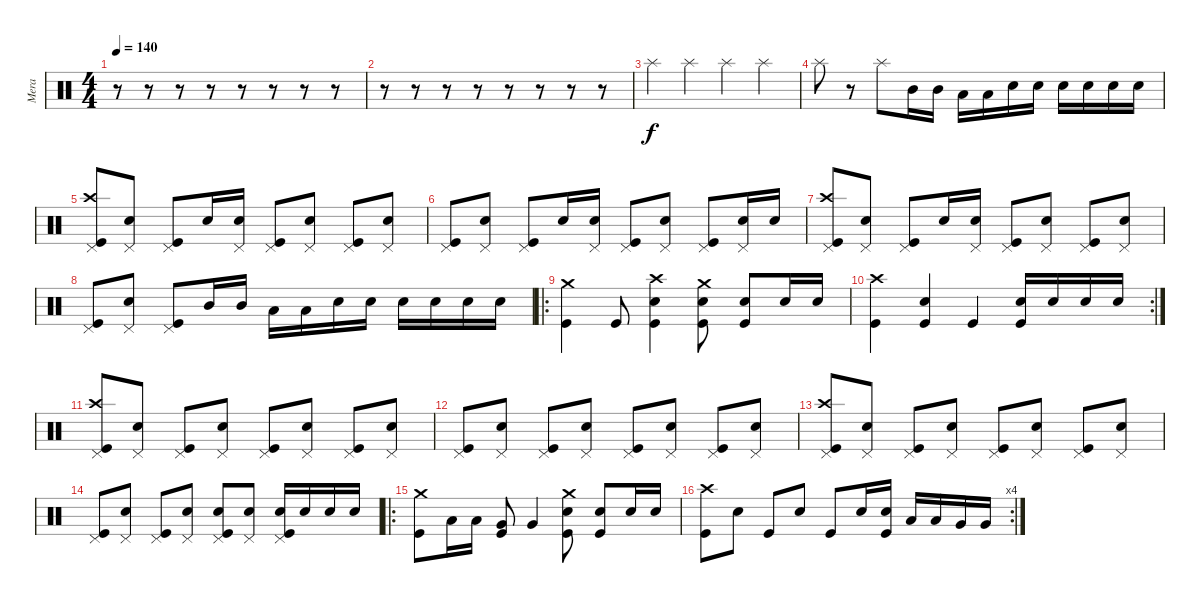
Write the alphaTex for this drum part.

\track ("Mera" "Mera") {instrument percussion}
\staff {score}
\articulation defaults
\ts (4 4)
\tempo 140
\clef neutral
\ks c
r.8{dy f} r.8 r.8 r.8 r.8 r.8 r.8 r.8 |
r.8 r.8 r.8 r.8 r.8 r.8 r.8 r.8 |
"Splash (hit)".4 "Splash (hit)".4 "Splash (hit)".4 "Splash (hit)".4 |
"Splash (hit)".8 r.8 "Splash (hit)".8 "Mid Tom (hit)".16 "Mid Tom (hit)".16 "Low Tom (hit)".16 "Low Tom (hit)".16 "Electric Snare (hit)".16 "Electric Snare (hit)".16 "Electric Snare (hit)".16 "Electric Snare (hit)".16 "Electric Snare (hit)".16 "Electric Snare (hit)".16 |
("Kick (hit)" "Crash high (hit)" "Pedal Hi-Hat (hit)").8 ("Electric Snare (hit)" "Pedal Hi-Hat (hit)").8 ("Kick (hit)" "Pedal Hi-Hat (hit)").8 "Electric Snare (hit)".16 ("Electric Snare (hit)" "Pedal Hi-Hat (hit)").16 ("Kick (hit)" "Pedal Hi-Hat (hit)").8 ("Electric Snare (hit)" "Pedal Hi-Hat (hit)").8 ("Kick (hit)" "Pedal Hi-Hat (hit)").8 ("Electric Snare (hit)" "Pedal Hi-Hat (hit)").8 |
("Kick (hit)" "Pedal Hi-Hat (hit)").8 ("Electric Snare (hit)" "Pedal Hi-Hat (hit)").8 ("Kick (hit)" "Pedal Hi-Hat (hit)").8 "Electric Snare (hit)".16 ("Electric Snare (hit)" "Pedal Hi-Hat (hit)").16 ("Kick (hit)" "Pedal Hi-Hat (hit)").8 ("Electric Snare (hit)" "Pedal Hi-Hat (hit)").8 ("Kick (hit)" "Pedal Hi-Hat (hit)").8 ("Electric Snare (hit)" "Pedal Hi-Hat (hit)").16 "Electric Snare (hit)".16 |
("Kick (hit)" "Crash high (hit)" "Pedal Hi-Hat (hit)").8 ("Electric Snare (hit)" "Pedal Hi-Hat (hit)").8 ("Kick (hit)" "Pedal Hi-Hat (hit)").8 "Electric Snare (hit)".16 ("Electric Snare (hit)" "Pedal Hi-Hat (hit)").16 ("Kick (hit)" "Pedal Hi-Hat (hit)").8 ("Electric Snare (hit)" "Pedal Hi-Hat (hit)").8 ("Kick (hit)" "Pedal Hi-Hat (hit)").8 ("Electric Snare (hit)" "Pedal Hi-Hat (hit)").8 |
("Kick (hit)" "Pedal Hi-Hat (hit)").8 ("Electric Snare (hit)" "Pedal Hi-Hat (hit)").8 ("Kick (hit)" "Pedal Hi-Hat (hit)").8 "Mid Tom (hit)".16 "Mid Tom (hit)".16 "Low Tom (hit)".16 "Low Tom (hit)".16 "Electric Snare (hit)".16 "Electric Snare (hit)".16 "Electric Snare (hit)".16 "Electric Snare (hit)".16 "Electric Snare (hit)".16 "Electric Snare (hit)".16 |
\ro
("Kick (hit)" "Crash medium (hit)").4 "Kick (hit)".8 ("Kick (hit)" "Electric Snare (hit)" "Crash high (hit)").4 ("Kick (hit)" "Electric Snare (hit)" "Crash medium (hit)").8 ("Kick (hit)" "Electric Snare (hit)").8 "Electric Snare (hit)".16 "Electric Snare (hit)".16 |
\rc 2
("Kick (hit)" "Crash high (hit)").4 ("Kick (hit)" "Electric Snare (hit)").4 "Kick (hit)".4 ("Kick (hit)" "Electric Snare (hit)").16 "Electric Snare (hit)".16 "Electric Snare (hit)".16 "Electric Snare (hit)".16 |
("Kick (hit)" "Crash high (hit)" "Pedal Hi-Hat (hit)").8 ("Electric Snare (hit)" "Pedal Hi-Hat (hit)").8 ("Kick (hit)" "Pedal Hi-Hat (hit)").8 ("Electric Snare (hit)" "Pedal Hi-Hat (hit)").8 ("Kick (hit)" "Pedal Hi-Hat (hit)").8 ("Electric Snare (hit)" "Pedal Hi-Hat (hit)").8 ("Kick (hit)" "Pedal Hi-Hat (hit)").8 ("Electric Snare (hit)" "Pedal Hi-Hat (hit)").8 |
("Kick (hit)" "Pedal Hi-Hat (hit)").8 ("Electric Snare (hit)" "Pedal Hi-Hat (hit)").8 ("Kick (hit)" "Pedal Hi-Hat (hit)").8 ("Electric Snare (hit)" "Pedal Hi-Hat (hit)").8 ("Kick (hit)" "Pedal Hi-Hat (hit)").8 ("Electric Snare (hit)" "Pedal Hi-Hat (hit)").8 ("Kick (hit)" "Pedal Hi-Hat (hit)").8 ("Electric Snare (hit)" "Pedal Hi-Hat (hit)").8 |
("Kick (hit)" "Crash high (hit)" "Pedal Hi-Hat (hit)").8 ("Electric Snare (hit)" "Pedal Hi-Hat (hit)").8 ("Kick (hit)" "Pedal Hi-Hat (hit)").8 ("Electric Snare (hit)" "Pedal Hi-Hat (hit)").8 ("Kick (hit)" "Pedal Hi-Hat (hit)").8 ("Electric Snare (hit)" "Pedal Hi-Hat (hit)").8 ("Kick (hit)" "Pedal Hi-Hat (hit)").8 ("Electric Snare (hit)" "Pedal Hi-Hat (hit)").8 |
("Kick (hit)" "Pedal Hi-Hat (hit)").8 ("Electric Snare (hit)" "Pedal Hi-Hat (hit)").8 ("Kick (hit)" "Pedal Hi-Hat (hit)").8 ("Electric Snare (hit)" "Pedal Hi-Hat (hit)").8 ("Kick (hit)" "Electric Snare (hit)" "Pedal Hi-Hat (hit)").8 ("Electric Snare (hit)" "Pedal Hi-Hat (hit)").8 ("Kick (hit)" "Electric Snare (hit)" "Pedal Hi-Hat (hit)").16 "Electric Snare (hit)".16 "Electric Snare (hit)".16 "Electric Snare (hit)".16 |
\ro
("Kick (hit)" "Crash medium (hit)").8 "Low Tom (hit)".16 "Low Tom (hit)".16 ("Kick (hit)" "Very Low Tom (hit)").8 "Very Low Tom (hit)".4 ("Kick (hit)" "Electric Snare (hit)" "Crash medium (hit)").8 ("Kick (hit)" "Electric Snare (hit)").8 "Electric Snare (hit)".16 "Electric Snare (hit)".16 |
\rc 4
("Kick (hit)" "Crash high (hit)").8 "Electric Snare (hit)".8 "Kick (hit)".8 "Electric Snare (hit)".8 "Kick (hit)".8 "Electric Snare (hit)".16 ("Kick (hit)" "Electric Snare (hit)").16 "Low Tom (hit)".16 "Low Tom (hit)".16 "Very Low Tom (hit)".16 "Very Low Tom (hit)".16
